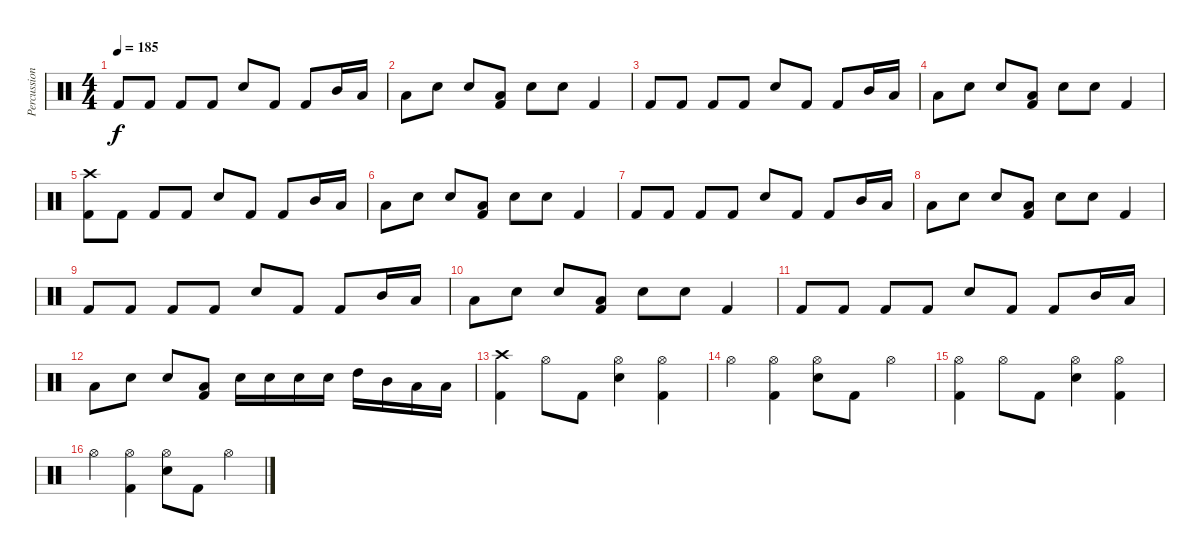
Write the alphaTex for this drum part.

\track ("Percussion" "Percussion") {instrument percussion}
\staff {score}
\articulation defaults
\ts (4 4)
\tempo 185
\clef neutral
\ks c "Kick (hit) 2".8{dy f} "Kick (hit) 2".8 "Kick (hit) 2".8 "Kick (hit) 2".8 "Electric Snare (hit)".8 "Kick (hit) 2".8 "Kick (hit) 2".8 "Mid Tom (hit)".16 "Low Tom (hit)".16
|
"Low Floor Tom (hit)".8 "Electric Snare (hit)".8 "Electric Snare (hit)".8 ("Low Floor Tom (hit)" "Kick (hit) 2").8 "Electric Snare (hit)".8 "Electric Snare (hit)".8 "Kick (hit) 2".4 |
"Kick (hit) 2".8 "Kick (hit) 2".8 "Kick (hit) 2".8 "Kick (hit) 2".8 "Electric Snare (hit)".8 "Kick (hit) 2".8 "Kick (hit) 2".8 "Mid Tom (hit)".16 "Low Tom (hit)".16 |
"Low Floor Tom (hit)".8 "Electric Snare (hit)".8 "Electric Snare (hit)".8 ("Low Floor Tom (hit)" "Kick (hit) 2").8 "Electric Snare (hit)".8 "Electric Snare (hit)".8 "Kick (hit) 2".4 |
("Crash high (hit)" "Kick (hit) 2").8 "Kick (hit) 2".8 "Kick (hit) 2".8 "Kick (hit) 2".8 "Electric Snare (hit)".8 "Kick (hit) 2".8 "Kick (hit) 2".8 "Mid Tom (hit)".16 "Low Tom (hit)".16 |
"Low Floor Tom (hit)".8 "Electric Snare (hit)".8 "Electric Snare (hit)".8 ("Low Floor Tom (hit)" "Kick (hit) 2").8 "Electric Snare (hit)".8 "Electric Snare (hit)".8 "Kick (hit) 2".4 |
"Kick (hit) 2".8 "Kick (hit) 2".8 "Kick (hit) 2".8 "Kick (hit) 2".8 "Electric Snare (hit)".8 "Kick (hit) 2".8 "Kick (hit) 2".8 "Mid Tom (hit)".16 "Low Tom (hit)".16 |
"Low Floor Tom (hit)".8 "Electric Snare (hit)".8 "Electric Snare (hit)".8 ("Low Floor Tom (hit)" "Kick (hit) 2").8 "Electric Snare (hit)".8 "Electric Snare (hit)".8 "Kick (hit) 2".4 |
"Kick (hit) 2".8 "Kick (hit) 2".8 "Kick (hit) 2".8 "Kick (hit) 2".8 "Electric Snare (hit)".8 "Kick (hit) 2".8 "Kick (hit) 2".8 "Mid Tom (hit)".16 "Low Tom (hit)".16 |
"Low Floor Tom (hit)".8 "Electric Snare (hit)".8 "Electric Snare (hit)".8 ("Low Floor Tom (hit)" "Kick (hit) 2").8 "Electric Snare (hit)".8 "Electric Snare (hit)".8 "Kick (hit) 2".4 |
"Kick (hit) 2".8 "Kick (hit) 2".8 "Kick (hit) 2".8 "Kick (hit) 2".8 "Electric Snare (hit)".8 "Kick (hit) 2".8 "Kick (hit) 2".8 "Mid Tom (hit)".16 "Low Tom (hit)".16 |
"Low Floor Tom (hit)".8 "Electric Snare (hit)".8 "Electric Snare (hit)".8 ("Low Floor Tom (hit)" "Kick (hit) 2").8 "Electric Snare (hit)".16 "Electric Snare (hit)".16 "Electric Snare (hit)".16 "Electric Snare (hit)".16 "High Tom (hit)".16 "Mid Tom (hit)".16 "Low Tom (hit)".16 "Low Floor Tom (hit)".16 |
("Crash high (hit)" "Kick (hit) 2").4 "Hi-Hat (open)".8 "Kick (hit) 2".8 ("Hi-Hat (open)" "Electric Snare (hit)").4 ("Kick (hit) 2" "Hi-Hat (open)").4 |
"Hi-Hat (open)".4 ("Kick (hit) 2" "Hi-Hat (open)").4 ("Hi-Hat (open)" "Electric Snare (hit)").8 "Kick (hit) 2".8 "Hi-Hat (open)".4 |
("Hi-Hat (open)" "Kick (hit) 2").4 "Hi-Hat (open)".8 "Kick (hit) 2".8 ("Hi-Hat (open)" "Electric Snare (hit)").4 ("Kick (hit) 2" "Hi-Hat (open)").4 |
"Hi-Hat (open)".4 ("Kick (hit) 2" "Hi-Hat (open)").4 ("Hi-Hat (open)" "Electric Snare (hit)").8 "Kick (hit) 2".8 "Hi-Hat (open)".4
